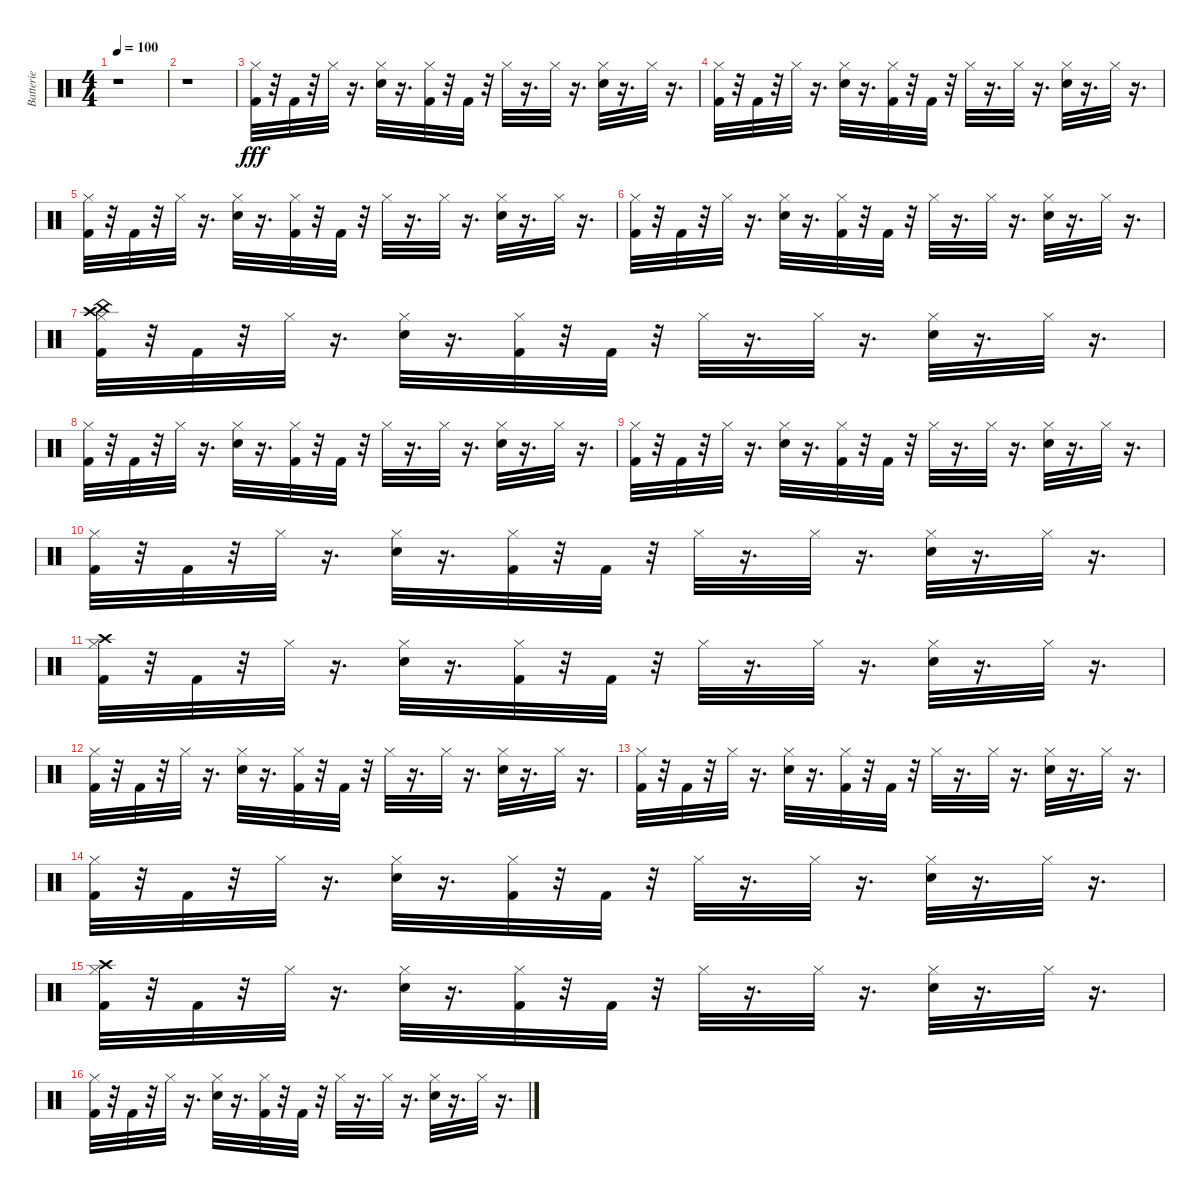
\track ("Batterie" "Batterie") {instrument percussion}
\staff {score}
\articulation defaults
\ts (4 4)
\tempo 100
\clef neutral
\ks c
r.1{dy fff} |
r.1 |
("Hi-Hat (closed)" "Kick (hit) 2").32 r.32 "Kick (hit) 2".32 r.32 "Hi-Hat (closed)".32 r.16{d} ("Hi-Hat (closed)" "Snare (hit) 2").32 r.16{d} ("Hi-Hat (closed)" "Kick (hit) 2").32 r.32 "Kick (hit) 2".32 r.32 "Hi-Hat (closed)".32 r.16{d} "Hi-Hat (closed)".32 r.16{d} ("Hi-Hat (closed)" "Snare (hit) 2").32 r.16{d} "Hi-Hat (closed)".32 r.16{d} |
("Hi-Hat (closed)" "Kick (hit) 2").32 r.32 "Kick (hit) 2".32 r.32 "Hi-Hat (closed)".32 r.16{d} ("Hi-Hat (closed)" "Snare (hit) 2").32 r.16{d} ("Hi-Hat (closed)" "Kick (hit) 2").32 r.32 "Kick (hit) 2".32 r.32 "Hi-Hat (closed)".32 r.16{d} "Hi-Hat (closed)".32 r.16{d} ("Hi-Hat (closed)" "Snare (hit) 2").32 r.16{d} "Hi-Hat (closed)".32 r.16{d} |
("Hi-Hat (closed)" "Kick (hit) 2").32 r.32 "Kick (hit) 2".32 r.32 "Hi-Hat (closed)".32 r.16{d} ("Hi-Hat (closed)" "Snare (hit) 2").32 r.16{d} ("Hi-Hat (closed)" "Kick (hit) 2").32 r.32 "Kick (hit) 2".32 r.32 "Hi-Hat (closed)".32 r.16{d} "Hi-Hat (closed)".32 r.16{d} ("Hi-Hat (closed)" "Snare (hit) 2").32 r.16{d} "Hi-Hat (closed)".32 r.16{d} |
("Hi-Hat (closed)" "Kick (hit) 2").32 r.32 "Kick (hit) 2".32 r.32 "Hi-Hat (closed)".32 r.16{d} ("Hi-Hat (closed)" "Snare (hit) 2").32 r.16{d} ("Hi-Hat (closed)" "Kick (hit) 2").32 r.32 "Kick (hit) 2".32 r.32 "Hi-Hat (closed)".32 r.16{d} "Hi-Hat (closed)".32 r.16{d} ("Hi-Hat (closed)" "Snare (hit) 2").32 r.16{d} "Hi-Hat (closed)".32 r.16{d} |
("China (hit)" "Crash high (hit)" "Hi-Hat (closed)" "Kick (hit) 2").32 r.32 "Kick (hit) 2".32 r.32 "Hi-Hat (closed)".32 r.16{d} ("Hi-Hat (closed)" "Snare (hit) 2").32 r.16{d} ("Hi-Hat (closed)" "Kick (hit) 2").32 r.32 "Kick (hit) 2".32 r.32 "Hi-Hat (closed)".32 r.16{d} "Hi-Hat (closed)".32 r.16{d} ("Hi-Hat (closed)" "Snare (hit) 2").32 r.16{d} "Hi-Hat (closed)".32 r.16{d} |
("Hi-Hat (closed)" "Kick (hit) 2").32 r.32 "Kick (hit) 2".32 r.32 "Hi-Hat (closed)".32 r.16{d} ("Hi-Hat (closed)" "Snare (hit) 2").32 r.16{d} ("Hi-Hat (closed)" "Kick (hit) 2").32 r.32 "Kick (hit) 2".32 r.32 "Hi-Hat (closed)".32 r.16{d} "Hi-Hat (closed)".32 r.16{d} ("Hi-Hat (closed)" "Snare (hit) 2").32 r.16{d} "Hi-Hat (closed)".32 r.16{d} |
("Hi-Hat (closed)" "Kick (hit) 2").32 r.32 "Kick (hit) 2".32 r.32 "Hi-Hat (closed)".32 r.16{d} ("Hi-Hat (closed)" "Snare (hit) 2").32 r.16{d} ("Hi-Hat (closed)" "Kick (hit) 2").32 r.32 "Kick (hit) 2".32 r.32 "Hi-Hat (closed)".32 r.16{d} "Hi-Hat (closed)".32 r.16{d} ("Hi-Hat (closed)" "Snare (hit) 2").32 r.16{d} "Hi-Hat (closed)".32 r.16{d} |
("Hi-Hat (closed)" "Kick (hit) 2").32 r.32 "Kick (hit) 2".32 r.32 "Hi-Hat (closed)".32 r.16{d} ("Hi-Hat (closed)" "Snare (hit) 2").32 r.16{d} ("Hi-Hat (closed)" "Kick (hit) 2").32 r.32 "Kick (hit) 2".32 r.32 "Hi-Hat (closed)".32 r.16{d} "Hi-Hat (closed)".32 r.16{d} ("Hi-Hat (closed)" "Snare (hit) 2").32 r.16{d} "Hi-Hat (closed)".32 r.16{d} |
("Crash high (hit)" "Hi-Hat (closed)" "Kick (hit) 2").32 r.32 "Kick (hit) 2".32 r.32 "Hi-Hat (closed)".32 r.16{d} ("Hi-Hat (closed)" "Snare (hit) 2").32 r.16{d} ("Hi-Hat (closed)" "Kick (hit) 2").32 r.32 "Kick (hit) 2".32 r.32 "Hi-Hat (closed)".32 r.16{d} "Hi-Hat (closed)".32 r.16{d} ("Hi-Hat (closed)" "Snare (hit) 2").32 r.16{d} "Hi-Hat (closed)".32 r.16{d} |
("Hi-Hat (closed)" "Kick (hit) 2").32 r.32 "Kick (hit) 2".32 r.32 "Hi-Hat (closed)".32 r.16{d} ("Hi-Hat (closed)" "Snare (hit) 2").32 r.16{d} ("Hi-Hat (closed)" "Kick (hit) 2").32 r.32 "Kick (hit) 2".32 r.32 "Hi-Hat (closed)".32 r.16{d} "Hi-Hat (closed)".32 r.16{d} ("Hi-Hat (closed)" "Snare (hit) 2").32 r.16{d} "Hi-Hat (closed)".32 r.16{d} |
("Hi-Hat (closed)" "Kick (hit) 2").32 r.32 "Kick (hit) 2".32 r.32 "Hi-Hat (closed)".32 r.16{d} ("Hi-Hat (closed)" "Snare (hit) 2").32 r.16{d} ("Hi-Hat (closed)" "Kick (hit) 2").32 r.32 "Kick (hit) 2".32 r.32 "Hi-Hat (closed)".32 r.16{d} "Hi-Hat (closed)".32 r.16{d} ("Hi-Hat (closed)" "Snare (hit) 2").32 r.16{d} "Hi-Hat (closed)".32 r.16{d} |
("Hi-Hat (closed)" "Kick (hit) 2").32 r.32 "Kick (hit) 2".32 r.32 "Hi-Hat (closed)".32 r.16{d} ("Hi-Hat (closed)" "Snare (hit) 2").32 r.16{d} ("Hi-Hat (closed)" "Kick (hit) 2").32 r.32 "Kick (hit) 2".32 r.32 "Hi-Hat (closed)".32 r.16{d} "Hi-Hat (closed)".32 r.16{d} ("Hi-Hat (closed)" "Snare (hit) 2").32 r.16{d} "Hi-Hat (closed)".32 r.16{d} |
("Crash high (hit)" "Hi-Hat (closed)" "Kick (hit) 2").32 r.32 "Kick (hit) 2".32 r.32 "Hi-Hat (closed)".32 r.16{d} ("Hi-Hat (closed)" "Snare (hit) 2").32 r.16{d} ("Hi-Hat (closed)" "Kick (hit) 2").32 r.32 "Kick (hit) 2".32 r.32 "Hi-Hat (closed)".32 r.16{d} "Hi-Hat (closed)".32 r.16{d} ("Hi-Hat (closed)" "Snare (hit) 2").32 r.16{d} "Hi-Hat (closed)".32 r.16{d} |
("Hi-Hat (closed)" "Kick (hit) 2").32 r.32 "Kick (hit) 2".32 r.32 "Hi-Hat (closed)".32 r.16{d} ("Hi-Hat (closed)" "Snare (hit) 2").32 r.16{d} ("Hi-Hat (closed)" "Kick (hit) 2").32 r.32 "Kick (hit) 2".32 r.32 "Hi-Hat (closed)".32 r.16{d} "Hi-Hat (closed)".32 r.16{d} ("Hi-Hat (closed)" "Snare (hit) 2").32 r.16{d} "Hi-Hat (closed)".32 r.16{d}
